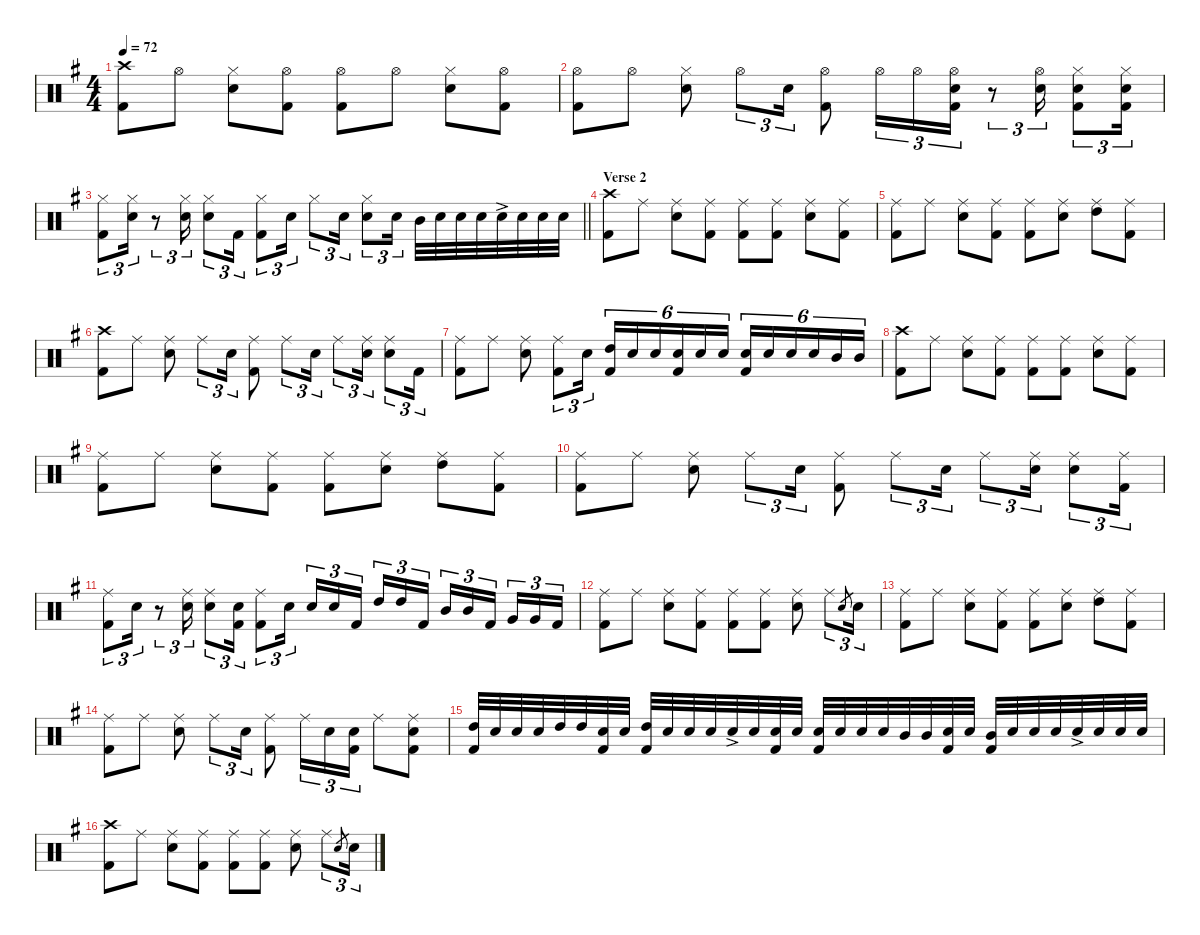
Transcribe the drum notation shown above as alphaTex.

\defaultSystemsLayout 4
\hideDynamics
\bracketExtendMode nobrackets
\singleTrackTrackNamePolicy hidden
\multiTrackTrackNamePolicy hidden
\otherSystemsTrackNameOrientation horizontal
\track ("Drums" "drm.") {instrument percussion}
\staff {score}
\articulation defaults
\ts (4 4)
\tempo 72
\clef neutral
\ks g
("Crash high (hit)"{acc forcenatural} "Kick (hit) 2"{acc forcenatural}).8{dy ff beam Down} "Hi-Hat (open)"{acc forcenatural}.8{dy f beam Down} ("Hi-Hat (closed)"{acc forcenatural} "Snare (hit) 2"{acc forcenatural}).8{beam Down} ("Hi-Hat (open)"{acc forcenatural} "Kick (hit) 2"{acc forcenatural}).8{beam Down} ("Hi-Hat (open)"{acc forcenatural} "Kick (hit) 2"{acc forcenatural}).8{beam Down} "Hi-Hat (open)"{acc forcenatural}.8{beam Down} ("Hi-Hat (closed)"{acc forcenatural} "Snare (hit) 2"{acc forcenatural}).8{beam Down} ("Hi-Hat (open)"{acc forcenatural} "Kick (hit) 2"{acc forcenatural}).8{beam Down} |
("Hi-Hat (open)"{acc forcenatural} "Kick (hit) 2"{acc forcenatural}).8{beam Down} "Hi-Hat (open)"{acc forcenatural}.8{beam Down} ("Hi-Hat (closed)"{acc forcenatural} "Snare (hit) 2"{acc forcenatural}).8{beam Down} "Hi-Hat (open)"{acc forcenatural}.8{tu (3 2) beam Down} "Snare (hit) 2"{acc forcenatural}.16{tu (3 2) beam Down} ("Hi-Hat (open)"{acc forcenatural} "Kick (hit) 2"{acc forcenatural}).8{beam Down} "Hi-Hat (open)"{acc forcenatural}.16{tu (3 2) beam Down} "Hi-Hat (open)"{acc forcenatural}.16{tu (3 2) beam Down} ("Hi-Hat (open)"{acc forcenatural} "Snare (hit) 2"{acc forcenatural} "Kick (hit) 2"{acc forcenatural}).16{tu (3 2) beam Down} r.8{tu (3 2) beam Down} ("Hi-Hat (open)"{acc forcenatural} "Snare (hit) 2"{acc forcenatural}).16{tu (3 2) beam Down} ("Hi-Hat (closed)"{acc forcenatural} "Snare (hit) 2"{acc forcenatural} "Kick (hit) 2"{acc forcenatural}).8{tu (3 2) beam Down} ("Hi-Hat (closed)"{acc forcenatural} "Snare (hit) 2"{acc forcenatural} "Kick (hit) 2"{acc forcenatural}).16{tu (3 2) beam Down} |
\barLineRight lightlight
("Hi-Hat (closed)"{acc forcenatural} "Kick (hit) 2"{acc forcenatural}).8{tu (3 2) beam Down} ("Hi-Hat (closed)"{acc forcenatural} "Snare (hit) 2"{acc forcenatural}).16{tu (3 2) beam Down} r.8{tu (3 2) beam Down} ("Hi-Hat (closed)"{acc forcenatural} "Snare (hit) 2"{acc forcenatural}).16{tu (3 2) beam Down} ("Hi-Hat (closed)"{acc forcenatural} "Snare (hit) 2"{acc forcenatural}).8{tu (3 2) beam Down} "Kick (hit) 2"{acc forcenatural}.16{tu (3 2) beam Down} ("Hi-Hat (closed)"{acc forcenatural} "Kick (hit) 2"{acc forcenatural}).8{tu (3 2) beam Down} "Snare (hit) 2"{acc forcenatural}.16{tu (3 2) beam Down} "Hi-Hat (closed)"{acc forcenatural}.8{tu (3 2) beam Down} "Snare (hit) 2"{acc forcenatural}.16{tu (3 2) beam Down} ("Hi-Hat (closed)"{acc forcenatural} "Snare (hit) 2"{acc forcenatural}).8{tu (3 2) beam Down} "Snare (hit) 2"{acc forcenatural}.16{tu (3 2) beam Down} "Mid Tom (hit)"{acc forcenatural}.32{beam Down} "Snare (hit) 2"{acc forcenatural}.32{beam Down} "Snare (hit) 2"{acc forcenatural}.32{beam Down} "Snare (hit) 2"{acc forcenatural}.32{beam Down} "Snare (hit) 2"{ac acc forcenatural}.32{beam Down} "Snare (hit) 2"{acc forcenatural}.32{beam Down} "Snare (hit) 2"{acc forcenatural}.32{beam Down} "Snare (hit) 2"{acc forcenatural}.32{beam Down} |
\section ("" "Verse 2")
("Crash high (hit)"{acc forcenatural} "Kick (hit) 2"{acc forcenatural}).8{dy ff beam Down} "Ride (middle)"{acc forcenatural}.8{dy f beam Down} ("Ride (middle)"{acc forcenatural} "Snare (hit) 2"{acc forcenatural}).8{beam Down} ("Ride (middle)"{acc forcenatural} "Kick (hit) 2"{acc forcenatural}).8{beam Down} ("Ride (middle)"{acc forcenatural} "Kick (hit) 2"{acc forcenatural}).8{beam Down} ("Ride (middle)"{acc forcenatural} "Kick (hit) 2"{acc forcenatural}).8{beam Down} ("Ride (middle)"{acc forcenatural} "Snare (hit) 2"{acc forcenatural}).8{beam Down} ("Ride (middle)"{acc forcenatural} "Kick (hit) 2"{acc forcenatural}).8{beam Down} |
("Ride (middle)"{acc forcenatural} "Kick (hit) 2"{acc forcenatural}).8{beam Down} "Ride (middle)"{acc forcenatural}.8{beam Down} ("Ride (middle)"{acc forcenatural} "Snare (hit) 2"{acc forcenatural}).8{beam Down} ("Ride (middle)"{acc forcenatural} "Kick (hit) 2"{acc forcenatural}).8{beam Down} ("Ride (middle)"{acc forcenatural} "Kick (hit) 2"{acc forcenatural}).8{beam Down} ("Ride (middle)"{acc forcenatural} "Snare (hit) 2"{acc forcenatural}).8{beam Down} ("Ride (middle)"{acc forcenatural} "High Tom (hit)"{acc forcenatural}).8{beam Down} ("Ride (middle)"{acc forcenatural} "Kick (hit) 2"{acc forcenatural}).8{beam Down} |
("Crash high (hit)"{acc forcenatural} "Kick (hit) 2"{acc forcenatural}).8{beam Down} "Ride (middle)"{acc forcenatural}.8{beam Down} ("Ride (middle)"{acc forcenatural} "Snare (hit) 2"{acc forcenatural}).8{beam Down} "Ride (middle)"{acc forcenatural}.8{tu (3 2) beam Down} "Snare (hit) 2"{acc forcenatural}.16{tu (3 2) beam Down} ("Ride (middle)"{acc forcenatural} "Kick (hit) 2"{acc forcenatural}).8{beam Down} "Ride (middle)"{acc forcenatural}.8{tu (3 2) beam Down} "Snare (hit) 2"{acc forcenatural}.16{tu (3 2) beam Down} "Ride (middle)"{acc forcenatural}.8{tu (3 2) beam Down} ("Ride (middle)"{acc forcenatural} "Snare (hit) 2"{acc forcenatural}).16{tu (3 2) beam Down} ("Ride (middle)"{acc forcenatural} "Snare (hit) 2"{acc forcenatural}).8{tu (3 2) beam Down} "Kick (hit) 2"{acc forcenatural}.16{tu (3 2) beam Down} |
("Ride (middle)"{acc forcenatural} "Kick (hit) 2"{acc forcenatural}).8{beam Down} "Ride (middle)"{acc forcenatural}.8{beam Down} ("Ride (middle)"{acc forcenatural} "Snare (hit) 2"{acc forcenatural}).8{beam Down} ("Ride (middle)"{acc forcenatural} "Kick (hit) 2"{acc forcenatural}).8{tu (3 2) beam Down} "Snare (hit) 2"{acc forcenatural}.16{tu (3 2) beam Down} ("High Tom (hit)"{acc forcenatural} "Kick (hit) 2"{acc forcenatural}).16{tu (6 4) beam Up} "Snare (hit) 2"{acc forcenatural}.16{tu (6 4) beam Up} "Snare (hit) 2"{acc forcenatural}.16{tu (6 4) beam Up} ("Snare (hit) 2"{acc forcenatural} "Kick (hit) 2"{acc forcenatural}).16{tu (6 4) beam Up} "Snare (hit) 2"{acc forcenatural}.16{tu (6 4) beam Up} "Snare (hit) 2"{acc forcenatural}.16{tu (6 4) beam Up} ("Snare (hit) 2"{acc forcenatural} "Kick (hit) 2"{acc forcenatural}).16{tu (6 4) beam Up} "Snare (hit) 2"{acc forcenatural}.16{tu (6 4) beam Up} "Snare (hit) 2"{acc forcenatural}.16{tu (6 4) beam Up} "Snare (hit) 2"{acc forcenatural}.16{tu (6 4) beam Up} "Mid Tom (hit)"{acc forcenatural}.16{tu (6 4) beam Up} "Mid Tom (hit)"{acc forcenatural}.16{tu (6 4) beam Up} |
("Crash high (hit)"{acc forcenatural} "Kick (hit) 2"{acc forcenatural}).8{dy ff beam Down} "Ride (middle)"{acc forcenatural}.8{dy f beam Down} ("Ride (middle)"{acc forcenatural} "Snare (hit) 2"{acc forcenatural}).8{beam Down} ("Ride (middle)"{acc forcenatural} "Kick (hit) 2"{acc forcenatural}).8{beam Down} ("Ride (middle)"{acc forcenatural} "Kick (hit) 2"{acc forcenatural}).8{beam Down} ("Ride (middle)"{acc forcenatural} "Kick (hit) 2"{acc forcenatural}).8{beam Down} ("Ride (middle)"{acc forcenatural} "Snare (hit) 2"{acc forcenatural}).8{beam Down} ("Ride (middle)"{acc forcenatural} "Kick (hit) 2"{acc forcenatural}).8{beam Down} |
("Ride (middle)"{acc forcenatural} "Kick (hit) 2"{acc forcenatural}).8{beam Down} "Ride (middle)"{acc forcenatural}.8{beam Down} ("Ride (middle)"{acc forcenatural} "Snare (hit) 2"{acc forcenatural}).8{beam Down} ("Ride (middle)"{acc forcenatural} "Kick (hit) 2"{acc forcenatural}).8{beam Down} ("Ride (middle)"{acc forcenatural} "Kick (hit) 2"{acc forcenatural}).8{beam Down} ("Ride (middle)"{acc forcenatural} "Snare (hit) 2"{acc forcenatural}).8{beam Down} ("Ride (middle)"{acc forcenatural} "High Tom (hit)"{acc forcenatural}).8{beam Down} ("Ride (middle)"{acc forcenatural} "Kick (hit) 2"{acc forcenatural}).8{beam Down} |
("Ride (middle)"{acc forcenatural} "Kick (hit) 2"{acc forcenatural}).8{beam Down} "Ride (middle)"{acc forcenatural}.8{beam Down} ("Ride (middle)"{acc forcenatural} "Snare (hit) 2"{acc forcenatural}).8{beam Down} "Ride (middle)"{acc forcenatural}.8{tu (3 2) beam Down} "Snare (hit) 2"{acc forcenatural}.16{tu (3 2) beam Down} ("Ride (middle)"{acc forcenatural} "Kick (hit) 2"{acc forcenatural}).8{beam Down} "Ride (middle)"{acc forcenatural}.8{tu (3 2) beam Down} "Snare (hit) 2"{acc forcenatural}.16{tu (3 2) beam Down} "Ride (middle)"{acc forcenatural}.8{tu (3 2) beam Down} ("Ride (middle)"{acc forcenatural} "Snare (hit) 2"{acc forcenatural}).16{tu (3 2) beam Down} ("Ride (middle)"{acc forcenatural} "Snare (hit) 2"{acc forcenatural}).8{tu (3 2) beam Down} ("Ride (middle)"{acc forcenatural} "Kick (hit) 2"{acc forcenatural}).16{tu (3 2) beam Down} |
("Ride (middle)"{acc forcenatural} "Kick (hit) 2"{acc forcenatural}).8{tu (3 2) beam Down} "Snare (hit) 2"{acc forcenatural}.16{tu (3 2) beam Down} r.8{tu (3 2) beam Down} ("Ride (middle)"{acc forcenatural} "Snare (hit) 2"{acc forcenatural}).16{tu (3 2) beam Down} ("Ride (middle)"{acc forcenatural} "Snare (hit) 2"{acc forcenatural}).8{tu (3 2) beam Down} ("Snare (hit) 2"{acc forcenatural} "Kick (hit) 2"{acc forcenatural}).16{tu (3 2) beam Down} ("Ride (middle)"{acc forcenatural} "Kick (hit) 2"{acc forcenatural}).8{tu (3 2) beam Down} "Snare (hit) 2"{acc forcenatural}.16{tu (3 2) beam Down} "Snare (hit) 2"{acc forcenatural}.16{tu (3 2) beam Up} "Snare (hit) 2"{acc forcenatural}.16{tu (3 2) beam Up} "Kick (hit) 2"{acc forcenatural}.16{tu (3 2) beam Up} "High Tom (hit)"{acc forcenatural}.16{tu (3 2) beam Up} "High Tom (hit)"{acc forcenatural}.16{tu (3 2) beam Up} "Kick (hit) 2"{acc forcenatural}.16{tu (3 2) beam Up} "Mid Tom (hit)"{acc forcenatural}.16{tu (3 2) beam Up} "Mid Tom (hit)"{acc forcenatural}.16{tu (3 2) beam Up} "Kick (hit) 2"{acc forcenatural}.16{tu (3 2) beam Up} "Very Low Tom (hit)"{acc forcenatural}.16{tu (3 2) beam Up} "Very Low Tom (hit)"{acc forcenatural}.16{tu (3 2) beam Up} "Kick (hit) 2"{acc forcenatural}.16{tu (3 2) beam Up} |
("Ride (middle)"{acc forcenatural} "Kick (hit) 2"{acc forcenatural}).8{beam Down} "Ride (middle)"{acc forcenatural}.8{beam Down} ("Ride (middle)"{acc forcenatural} "Snare (hit) 2"{acc forcenatural}).8{beam Down} ("Ride (middle)"{acc forcenatural} "Kick (hit) 2"{acc forcenatural}).8{beam Down} ("Ride (middle)"{acc forcenatural} "Kick (hit) 2"{acc forcenatural}).8{beam Down} ("Ride (middle)"{acc forcenatural} "Kick (hit) 2"{acc forcenatural}).8{beam Down} ("Ride (middle)"{acc forcenatural} "Snare (hit) 2"{acc forcenatural}).8{beam Down} "Ride (middle)"{acc forcenatural}.8{tu (3 2) beam Down} "Electric Snare (hit)"{acc forcenatural}.8{gr dy p beam Up} "Snare (hit) 2"{acc forcenatural}.16{tu (3 2) dy f beam Down} |
("Ride (middle)"{acc forcenatural} "Kick (hit) 2"{acc forcenatural}).8{beam Down} "Ride (middle)"{acc forcenatural}.8{beam Down} ("Ride (middle)"{acc forcenatural} "Snare (hit) 2"{acc forcenatural}).8{beam Down} ("Ride (middle)"{acc forcenatural} "Kick (hit) 2"{acc forcenatural}).8{beam Down} ("Ride (middle)"{acc forcenatural} "Kick (hit) 2"{acc forcenatural}).8{beam Down} ("Ride (middle)"{acc forcenatural} "Snare (hit) 2"{acc forcenatural}).8{beam Down} ("Ride (middle)"{acc forcenatural} "High Tom (hit)"{acc forcenatural}).8{beam Down} ("Ride (middle)"{acc forcenatural} "Kick (hit) 2"{acc forcenatural}).8{beam Down} |
("Ride (middle)"{acc forcenatural} "Kick (hit) 2"{acc forcenatural}).8{beam Down} "Ride (middle)"{acc forcenatural}.8{beam Down} ("Ride (middle)"{acc forcenatural} "Snare (hit) 2"{acc forcenatural}).8{beam Down} "Ride (middle)"{acc forcenatural}.8{tu (3 2) beam Down} "Snare (hit) 2"{acc forcenatural}.16{tu (3 2) beam Down} ("Ride (middle)"{acc forcenatural} "Kick (hit) 2"{acc forcenatural}).8{beam Down} "Ride (middle)"{acc forcenatural}.16{tu (3 2) beam Down} "Snare (hit) 2"{acc forcenatural}.16{tu (3 2) beam Down} ("Snare (hit) 2"{acc forcenatural} "Kick (hit) 2"{acc forcenatural}).16{tu (3 2) beam Down} "Ride (middle)"{acc forcenatural}.8{beam Down} ("Ride (middle)"{acc forcenatural} "Snare (hit) 2"{acc forcenatural} "Kick (hit) 2"{acc forcenatural}).8{beam Down} |
("High Tom (hit)"{acc forcenatural} "Kick (hit) 2"{acc forcenatural}).32{beam Up} "Snare (hit) 2"{acc forcenatural}.32{beam Up} "Snare (hit) 2"{acc forcenatural}.32{beam Up} "Snare (hit) 2"{acc forcenatural}.32{beam Up} "High Tom (hit)"{acc forcenatural}.32{beam Up} "High Tom (hit)"{acc forcenatural}.32{beam Up} ("Snare (hit) 2"{acc forcenatural} "Kick (hit) 2"{acc forcenatural}).32{beam Up} "Snare (hit) 2"{acc forcenatural}.32{beam Up} ("High Tom (hit)"{acc forcenatural} "Kick (hit) 2"{acc forcenatural}).32{beam Up} "Snare (hit) 2"{acc forcenatural}.32{beam Up} "Snare (hit) 2"{acc forcenatural}.32{beam Up} "Snare (hit) 2"{acc forcenatural}.32{beam Up} "Snare (hit) 2"{ac acc forcenatural}.32{beam Up} "Snare (hit) 2"{acc forcenatural}.32{beam Up} ("Snare (hit) 2"{acc forcenatural} "Kick (hit) 2"{acc forcenatural}).32{beam Up} "Snare (hit) 2"{acc forcenatural}.32{beam Up} ("Snare (hit) 2"{acc forcenatural} "Kick (hit) 2"{acc forcenatural}).32{beam Up} "Snare (hit) 2"{acc forcenatural}.32{beam Up} "Snare (hit) 2"{acc forcenatural}.32{beam Up} "Snare (hit) 2"{acc forcenatural}.32{beam Up} "Mid Tom (hit)"{acc forcenatural}.32{beam Up} "Mid Tom (hit)"{acc forcenatural}.32{beam Up} ("Snare (hit) 2"{acc forcenatural} "Kick (hit) 2"{acc forcenatural}).32{beam Up} "Snare (hit) 2"{acc forcenatural}.32{beam Up} ("Mid Tom (hit)"{acc forcenatural} "Kick (hit) 2"{acc forcenatural}).32{beam Up} "Snare (hit) 2"{acc forcenatural}.32{beam Up} "Snare (hit) 2"{acc forcenatural}.32{beam Up} "Snare (hit) 2"{acc forcenatural}.32{beam Up} "Snare (hit) 2"{ac acc forcenatural}.32{beam Up} "Snare (hit) 2"{acc forcenatural}.32{beam Up} "Snare (hit) 2"{acc forcenatural}.32{beam Up} "Snare (hit) 2"{acc forcenatural}.32{beam Up} |
("Crash high (hit)"{acc forcenatural} "Kick (hit) 2"{acc forcenatural}).8{dy ff beam Down} "Ride (middle)"{acc forcenatural}.8{dy f beam Down} ("Ride (middle)"{acc forcenatural} "Snare (hit) 2"{acc forcenatural}).8{beam Down} ("Ride (middle)"{acc forcenatural} "Kick (hit) 2"{acc forcenatural}).8{beam Down} ("Ride (middle)"{acc forcenatural} "Kick (hit) 2"{acc forcenatural}).8{beam Down} ("Ride (middle)"{acc forcenatural} "Kick (hit) 2"{acc forcenatural}).8{beam Down} ("Ride (middle)"{acc forcenatural} "Snare (hit) 2"{acc forcenatural}).8{beam Down} "Ride (middle)"{acc forcenatural}.8{tu (3 2) beam Down} "Electric Snare (hit)"{acc forcenatural}.8{gr dy p beam Up} "Snare (hit) 2"{acc forcenatural}.16{tu (3 2) dy f beam Down}
